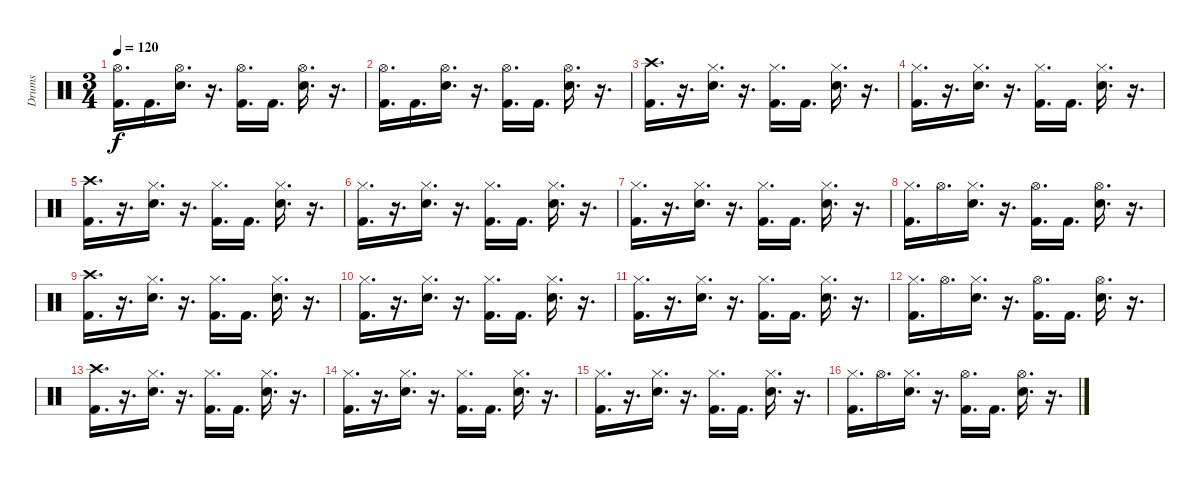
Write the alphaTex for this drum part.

\track ("Drums" "Drums") {instrument percussion}
\staff {score}
\articulation defaults
\ts (3 4)
\tempo 120
\clef neutral
\ks c
("Hi-Hat (open)" "Kick (hit) 2").16{d dy f} "Kick (hit) 2".16{d} ("Hi-Hat (open)" "Electric Snare (hit)").16{d} r.16{d} ("Hi-Hat (open)" "Kick (hit) 2").16{d} "Kick (hit) 2".16{d} ("Hi-Hat (open)" "Electric Snare (hit)").16{d} r.16{d} |
("Hi-Hat (open)" "Kick (hit) 2").16{d} "Kick (hit) 2".16{d} ("Hi-Hat (open)" "Electric Snare (hit)").16{d} r.16{d} ("Hi-Hat (open)" "Kick (hit) 2").16{d} "Kick (hit) 2".16{d} ("Hi-Hat (open)" "Electric Snare (hit)").16{d} r.16{d} |
("Crash high (hit)" "Kick (hit) 2").16{d} r.16{d} ("Hi-Hat (closed)" "Electric Snare (hit)").16{d} r.16{d} ("Hi-Hat (closed)" "Kick (hit) 2").16{d} "Kick (hit) 2".16{d} ("Hi-Hat (closed)" "Electric Snare (hit)").16{d} r.16{d} |
("Hi-Hat (closed)" "Kick (hit) 2").16{d} r.16{d} ("Hi-Hat (closed)" "Electric Snare (hit)").16{d} r.16{d} ("Hi-Hat (closed)" "Kick (hit) 2").16{d} "Kick (hit) 2".16{d} ("Hi-Hat (closed)" "Electric Snare (hit)").16{d} r.16{d} |
("Crash high (hit)" "Kick (hit) 2").16{d} r.16{d} ("Hi-Hat (closed)" "Electric Snare (hit)").16{d} r.16{d} ("Hi-Hat (closed)" "Kick (hit) 2").16{d} "Kick (hit) 2".16{d} ("Hi-Hat (closed)" "Electric Snare (hit)").16{d} r.16{d} |
("Hi-Hat (closed)" "Kick (hit) 2").16{d} r.16{d} ("Hi-Hat (closed)" "Electric Snare (hit)").16{d} r.16{d} ("Hi-Hat (closed)" "Kick (hit) 2").16{d} "Kick (hit) 2".16{d} ("Hi-Hat (closed)" "Electric Snare (hit)").16{d} r.16{d} |
("Hi-Hat (closed)" "Kick (hit) 2").16{d} r.16{d} ("Hi-Hat (closed)" "Electric Snare (hit)").16{d} r.16{d} ("Hi-Hat (closed)" "Kick (hit) 2").16{d} "Kick (hit) 2".16{d} ("Hi-Hat (closed)" "Electric Snare (hit)").16{d} r.16{d} |
("Hi-Hat (closed)" "Kick (hit) 2").16{d} "Hi-Hat (open)".16{d} ("Hi-Hat (closed)" "Electric Snare (hit)").16{d} r.16{d} ("Hi-Hat (open)" "Kick (hit) 2").16{d} "Kick (hit) 2".16{d} ("Hi-Hat (open)" "Electric Snare (hit)").16{d} r.16{d} |
("Crash high (hit)" "Kick (hit) 2").16{d} r.16{d} ("Hi-Hat (closed)" "Electric Snare (hit)").16{d} r.16{d} ("Hi-Hat (closed)" "Kick (hit) 2").16{d} "Kick (hit) 2".16{d} ("Hi-Hat (closed)" "Electric Snare (hit)").16{d} r.16{d} |
("Hi-Hat (closed)" "Kick (hit) 2").16{d} r.16{d} ("Hi-Hat (closed)" "Electric Snare (hit)").16{d} r.16{d} ("Hi-Hat (closed)" "Kick (hit) 2").16{d} "Kick (hit) 2".16{d} ("Hi-Hat (closed)" "Electric Snare (hit)").16{d} r.16{d} |
("Hi-Hat (closed)" "Kick (hit) 2").16{d} r.16{d} ("Hi-Hat (closed)" "Electric Snare (hit)").16{d} r.16{d} ("Hi-Hat (closed)" "Kick (hit) 2").16{d} "Kick (hit) 2".16{d} ("Hi-Hat (closed)" "Electric Snare (hit)").16{d} r.16{d} |
("Hi-Hat (closed)" "Kick (hit) 2").16{d} "Hi-Hat (open)".16{d} ("Hi-Hat (closed)" "Electric Snare (hit)").16{d} r.16{d} ("Hi-Hat (open)" "Kick (hit) 2").16{d} "Kick (hit) 2".16{d} ("Hi-Hat (open)" "Electric Snare (hit)").16{d} r.16{d} |
("Crash high (hit)" "Kick (hit) 2").16{d} r.16{d} ("Hi-Hat (closed)" "Electric Snare (hit)").16{d} r.16{d} ("Hi-Hat (closed)" "Kick (hit) 2").16{d} "Kick (hit) 2".16{d} ("Hi-Hat (closed)" "Electric Snare (hit)").16{d} r.16{d} |
("Hi-Hat (closed)" "Kick (hit) 2").16{d} r.16{d} ("Hi-Hat (closed)" "Electric Snare (hit)").16{d} r.16{d} ("Hi-Hat (closed)" "Kick (hit) 2").16{d} "Kick (hit) 2".16{d} ("Hi-Hat (closed)" "Electric Snare (hit)").16{d} r.16{d} |
("Hi-Hat (closed)" "Kick (hit) 2").16{d} r.16{d} ("Hi-Hat (closed)" "Electric Snare (hit)").16{d} r.16{d} ("Hi-Hat (closed)" "Kick (hit) 2").16{d} "Kick (hit) 2".16{d} ("Hi-Hat (closed)" "Electric Snare (hit)").16{d} r.16{d} |
("Hi-Hat (closed)" "Kick (hit) 2").16{d} "Hi-Hat (open)".16{d} ("Hi-Hat (closed)" "Electric Snare (hit)").16{d} r.16{d} ("Hi-Hat (open)" "Kick (hit) 2").16{d} "Kick (hit) 2".16{d} ("Hi-Hat (open)" "Electric Snare (hit)").16{d} r.16{d}
